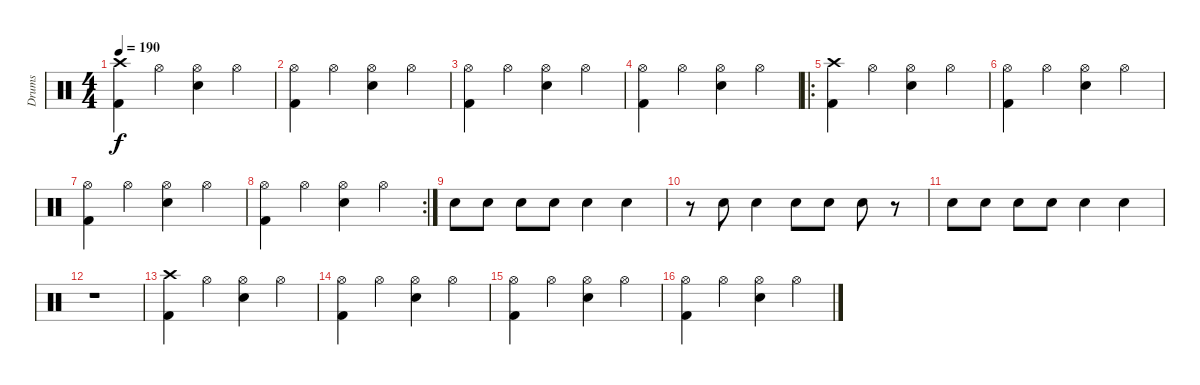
\track ("Drums" "Drums") {instrument percussion}
\staff {score}
\articulation defaults
\ts (4 4)
\tempo 190
\clef neutral
\ks c
("Crash high (hit)" "Kick (hit) 2").4{dy f} "Hi-Hat (open)".4 ("Hi-Hat (open)" "Electric Snare (hit)").4 "Hi-Hat (open)".4 |
("Hi-Hat (open)" "Kick (hit) 2").4 "Hi-Hat (open)".4 ("Hi-Hat (open)" "Electric Snare (hit)").4 "Hi-Hat (open)".4 |
("Hi-Hat (open)" "Kick (hit) 2").4 "Hi-Hat (open)".4 ("Hi-Hat (open)" "Electric Snare (hit)").4 "Hi-Hat (open)".4 |
("Hi-Hat (open)" "Kick (hit) 2").4 "Hi-Hat (open)".4 ("Hi-Hat (open)" "Electric Snare (hit)").4 "Hi-Hat (open)".4 |
\ro
("Crash high (hit)" "Kick (hit) 2").4 "Hi-Hat (open)".4 ("Hi-Hat (open)" "Electric Snare (hit)").4 "Hi-Hat (open)".4 |
("Hi-Hat (open)" "Kick (hit) 2").4 "Hi-Hat (open)".4 ("Hi-Hat (open)" "Electric Snare (hit)").4 "Hi-Hat (open)".4 |
("Hi-Hat (open)" "Kick (hit) 2").4 "Hi-Hat (open)".4 ("Hi-Hat (open)" "Electric Snare (hit)").4 "Hi-Hat (open)".4 |
\rc 2
("Hi-Hat (open)" "Kick (hit) 2").4 "Hi-Hat (open)".4 ("Hi-Hat (open)" "Electric Snare (hit)").4 "Hi-Hat (open)".4 |
"Electric Snare (hit)".8 "Electric Snare (hit)".8 "Electric Snare (hit)".8 "Electric Snare (hit)".8 "Electric Snare (hit)".4 "Electric Snare (hit)".4 |
r.8 "Electric Snare (hit)".8 "Electric Snare (hit)".4 "Electric Snare (hit)".8 "Electric Snare (hit)".8 "Electric Snare (hit)".8 r.8 |
"Electric Snare (hit)".8 "Electric Snare (hit)".8 "Electric Snare (hit)".8 "Electric Snare (hit)".8 "Electric Snare (hit)".4 "Electric Snare (hit)".4 |
r.1 |
("Crash high (hit)" "Kick (hit) 2").4 "Hi-Hat (open)".4 ("Hi-Hat (open)" "Electric Snare (hit)").4 "Hi-Hat (open)".4 |
("Hi-Hat (open)" "Kick (hit) 2").4 "Hi-Hat (open)".4 ("Hi-Hat (open)" "Electric Snare (hit)").4 "Hi-Hat (open)".4 |
("Hi-Hat (open)" "Kick (hit) 2").4 "Hi-Hat (open)".4 ("Hi-Hat (open)" "Electric Snare (hit)").4 "Hi-Hat (open)".4 |
("Hi-Hat (open)" "Kick (hit) 2").4 "Hi-Hat (open)".4 ("Hi-Hat (open)" "Electric Snare (hit)").4 "Hi-Hat (open)".4
